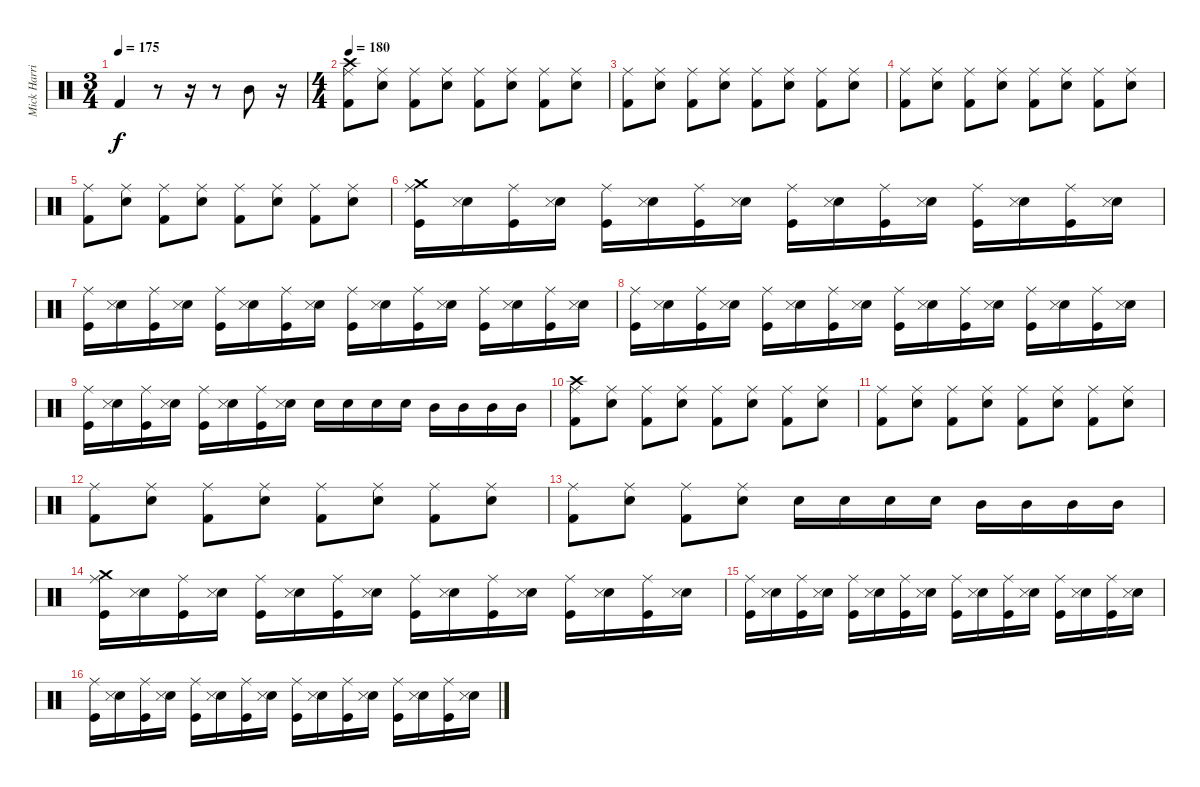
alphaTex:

\track ("Mick Harris (Drums)" "Mick Harri") {instrument percussion}
\staff {score}
\articulation defaults
\ts (3 4)
\tempo 175
\clef neutral
\ks c "Kick (hit) 2".4{dy f}
r.8 r.16 r.8 "Mid Tom (hit)".8 r.16 |
\ts (4 4)
\tempo 180
("Kick (hit) 2" "Crash high (hit)" "Ride (middle)").8 ("Electric Snare (hit)" "Ride (middle)").8 ("Kick (hit) 2" "Ride (middle)").8 ("Electric Snare (hit)" "Ride (middle)").8 ("Kick (hit) 2" "Ride (middle)").8 ("Electric Snare (hit)" "Ride (middle)").8 ("Kick (hit) 2" "Ride (middle)").8 ("Electric Snare (hit)" "Ride (middle)").8 |
("Kick (hit) 2" "Ride (middle)").8 ("Electric Snare (hit)" "Ride (middle)").8 ("Kick (hit) 2" "Ride (middle)").8 ("Electric Snare (hit)" "Ride (middle)").8 ("Kick (hit) 2" "Ride (middle)").8 ("Electric Snare (hit)" "Ride (middle)").8 ("Kick (hit) 2" "Ride (middle)").8 ("Electric Snare (hit)" "Ride (middle)").8 |
("Kick (hit) 2" "Ride (middle)").8 ("Electric Snare (hit)" "Ride (middle)").8 ("Kick (hit) 2" "Ride (middle)").8 ("Electric Snare (hit)" "Ride (middle)").8 ("Kick (hit) 2" "Ride (middle)").8 ("Electric Snare (hit)" "Ride (middle)").8 ("Kick (hit) 2" "Ride (middle)").8 ("Electric Snare (hit)" "Ride (middle)").8 |
("Kick (hit) 2" "Ride (middle)").8 ("Electric Snare (hit)" "Ride (middle)").8 ("Kick (hit) 2" "Ride (middle)").8 ("Electric Snare (hit)" "Ride (middle)").8 ("Kick (hit) 2" "Ride (middle)").8 ("Electric Snare (hit)" "Ride (middle)").8 ("Kick (hit) 2" "Ride (middle)").8 ("Electric Snare (hit)" "Ride (middle)").8 |
("Kick (hit)" "Crash medium (hit)" "Ride (middle)").16 ("Electric Snare (hit)" "Snare (side stick) 3").16 ("Kick (hit)" "Ride (middle)").16 ("Electric Snare (hit)" "Snare (side stick) 3").16 ("Kick (hit)" "Ride (middle)").16 ("Electric Snare (hit)" "Snare (side stick) 3").16 ("Kick (hit)" "Ride (middle)").16 ("Electric Snare (hit)" "Snare (side stick) 3").16 ("Kick (hit)" "Ride (middle)").16 ("Electric Snare (hit)" "Snare (side stick) 3").16 ("Kick (hit)" "Ride (middle)").16 ("Electric Snare (hit)" "Snare (side stick) 3").16 ("Kick (hit)" "Ride (middle)").16 ("Electric Snare (hit)" "Snare (side stick) 3").16 ("Kick (hit)" "Ride (middle)").16 ("Electric Snare (hit)" "Snare (side stick) 3").16 |
("Kick (hit)" "Ride (middle)").16 ("Electric Snare (hit)" "Snare (side stick) 3").16 ("Kick (hit)" "Ride (middle)").16 ("Electric Snare (hit)" "Snare (side stick) 3").16 ("Kick (hit)" "Ride (middle)").16 ("Electric Snare (hit)" "Snare (side stick) 3").16 ("Kick (hit)" "Ride (middle)").16 ("Electric Snare (hit)" "Snare (side stick) 3").16 ("Kick (hit)" "Ride (middle)").16 ("Electric Snare (hit)" "Snare (side stick) 3").16 ("Kick (hit)" "Ride (middle)").16 ("Electric Snare (hit)" "Snare (side stick) 3").16 ("Kick (hit)" "Ride (middle)").16 ("Electric Snare (hit)" "Snare (side stick) 3").16 ("Kick (hit)" "Ride (middle)").16 ("Electric Snare (hit)" "Snare (side stick) 3").16 |
("Kick (hit)" "Ride (middle)").16 ("Electric Snare (hit)" "Snare (side stick) 3").16 ("Kick (hit)" "Ride (middle)").16 ("Electric Snare (hit)" "Snare (side stick) 3").16 ("Kick (hit)" "Ride (middle)").16 ("Electric Snare (hit)" "Snare (side stick) 3").16 ("Kick (hit)" "Ride (middle)").16 ("Electric Snare (hit)" "Snare (side stick) 3").16 ("Kick (hit)" "Ride (middle)").16 ("Electric Snare (hit)" "Snare (side stick) 3").16 ("Kick (hit)" "Ride (middle)").16 ("Electric Snare (hit)" "Snare (side stick) 3").16 ("Kick (hit)" "Ride (middle)").16 ("Electric Snare (hit)" "Snare (side stick) 3").16 ("Kick (hit)" "Ride (middle)").16 ("Electric Snare (hit)" "Snare (side stick) 3").16 |
("Kick (hit)" "Ride (middle)").16 ("Electric Snare (hit)" "Snare (side stick) 3").16 ("Kick (hit)" "Ride (middle)").16 ("Electric Snare (hit)" "Snare (side stick) 3").16 ("Kick (hit)" "Ride (middle)").16 ("Electric Snare (hit)" "Snare (side stick) 3").16 ("Kick (hit)" "Ride (middle)").16 ("Electric Snare (hit)" "Snare (side stick) 3").16 "Electric Snare (hit)".16 "Electric Snare (hit)".16 "Electric Snare (hit)".16 "Electric Snare (hit)".16 "Mid Tom (hit)".16 "Mid Tom (hit)".16 "Mid Tom (hit)".16 "Mid Tom (hit)".16 |
("Kick (hit) 2" "Crash high (hit)" "Ride (middle)").8 ("Electric Snare (hit)" "Ride (middle)").8 ("Kick (hit) 2" "Ride (middle)").8 ("Electric Snare (hit)" "Ride (middle)").8 ("Kick (hit) 2" "Ride (middle)").8 ("Electric Snare (hit)" "Ride (middle)").8 ("Kick (hit) 2" "Ride (middle)").8 ("Electric Snare (hit)" "Ride (middle)").8 |
("Kick (hit) 2" "Ride (middle)").8 ("Electric Snare (hit)" "Ride (middle)").8 ("Kick (hit) 2" "Ride (middle)").8 ("Electric Snare (hit)" "Ride (middle)").8 ("Kick (hit) 2" "Ride (middle)").8 ("Electric Snare (hit)" "Ride (middle)").8 ("Kick (hit) 2" "Ride (middle)").8 ("Electric Snare (hit)" "Ride (middle)").8 |
("Kick (hit) 2" "Ride (middle)").8 ("Electric Snare (hit)" "Ride (middle)").8 ("Kick (hit) 2" "Ride (middle)").8 ("Electric Snare (hit)" "Ride (middle)").8 ("Kick (hit) 2" "Ride (middle)").8 ("Electric Snare (hit)" "Ride (middle)").8 ("Kick (hit) 2" "Ride (middle)").8 ("Electric Snare (hit)" "Ride (middle)").8 |
("Kick (hit) 2" "Ride (middle)").8 ("Electric Snare (hit)" "Ride (middle)").8 ("Kick (hit) 2" "Ride (middle)").8 ("Electric Snare (hit)" "Ride (middle)").8 "Electric Snare (hit)".16 "Electric Snare (hit)".16 "Electric Snare (hit)".16 "Electric Snare (hit)".16 "Mid Tom (hit)".16 "Mid Tom (hit)".16 "Mid Tom (hit)".16 "Mid Tom (hit)".16 |
("Kick (hit)" "Crash medium (hit)" "Ride (middle)").16 ("Electric Snare (hit)" "Snare (side stick) 3").16 ("Kick (hit)" "Ride (middle)").16 ("Electric Snare (hit)" "Snare (side stick) 3").16 ("Kick (hit)" "Ride (middle)").16 ("Electric Snare (hit)" "Snare (side stick) 3").16 ("Kick (hit)" "Ride (middle)").16 ("Electric Snare (hit)" "Snare (side stick) 3").16 ("Kick (hit)" "Ride (middle)").16 ("Electric Snare (hit)" "Snare (side stick) 3").16 ("Kick (hit)" "Ride (middle)").16 ("Electric Snare (hit)" "Snare (side stick) 3").16 ("Kick (hit)" "Ride (middle)").16 ("Electric Snare (hit)" "Snare (side stick) 3").16 ("Kick (hit)" "Ride (middle)").16 ("Electric Snare (hit)" "Snare (side stick) 3").16 |
("Kick (hit)" "Ride (middle)").16 ("Electric Snare (hit)" "Snare (side stick) 3").16 ("Kick (hit)" "Ride (middle)").16 ("Electric Snare (hit)" "Snare (side stick) 3").16 ("Kick (hit)" "Ride (middle)").16 ("Electric Snare (hit)" "Snare (side stick) 3").16 ("Kick (hit)" "Ride (middle)").16 ("Electric Snare (hit)" "Snare (side stick) 3").16 ("Kick (hit)" "Ride (middle)").16 ("Electric Snare (hit)" "Snare (side stick) 3").16 ("Kick (hit)" "Ride (middle)").16 ("Electric Snare (hit)" "Snare (side stick) 3").16 ("Kick (hit)" "Ride (middle)").16 ("Electric Snare (hit)" "Snare (side stick) 3").16 ("Kick (hit)" "Ride (middle)").16 ("Electric Snare (hit)" "Snare (side stick) 3").16 |
("Kick (hit)" "Ride (middle)").16 ("Electric Snare (hit)" "Snare (side stick) 3").16 ("Kick (hit)" "Ride (middle)").16 ("Electric Snare (hit)" "Snare (side stick) 3").16 ("Kick (hit)" "Ride (middle)").16 ("Electric Snare (hit)" "Snare (side stick) 3").16 ("Kick (hit)" "Ride (middle)").16 ("Electric Snare (hit)" "Snare (side stick) 3").16 ("Kick (hit)" "Ride (middle)").16 ("Electric Snare (hit)" "Snare (side stick) 3").16 ("Kick (hit)" "Ride (middle)").16 ("Electric Snare (hit)" "Snare (side stick) 3").16 ("Kick (hit)" "Ride (middle)").16 ("Electric Snare (hit)" "Snare (side stick) 3").16 ("Kick (hit)" "Ride (middle)").16 ("Electric Snare (hit)" "Snare (side stick) 3").16
